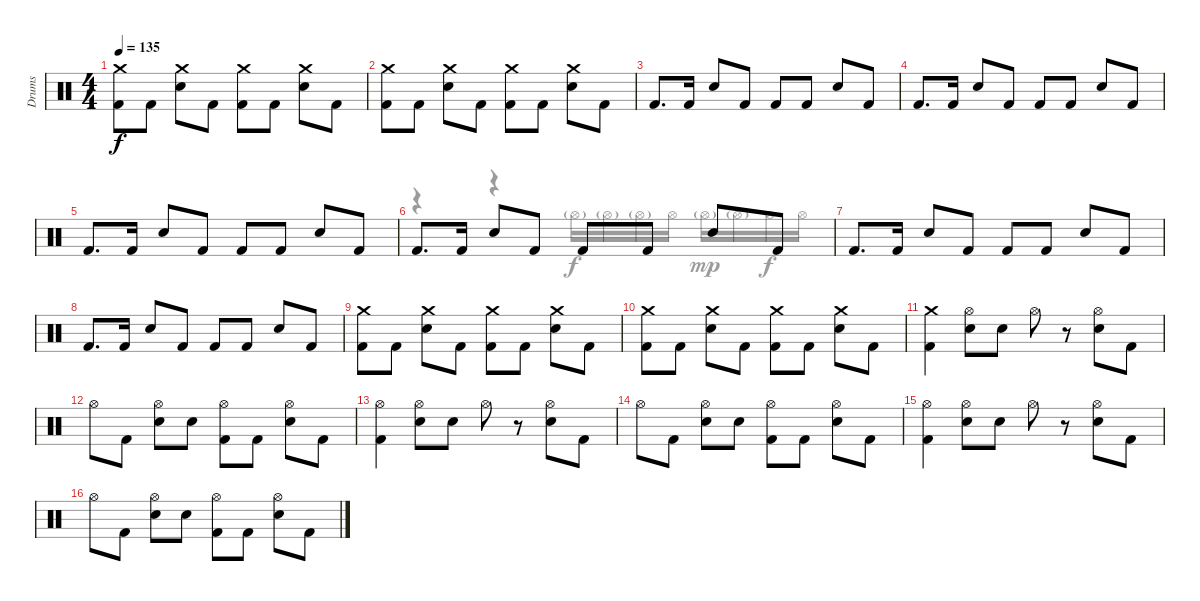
\track ("Drums" "Drums") {instrument percussion}
\staff {score}
\articulation defaults
\voice
\ts (4 4)
\tempo 135
\clef neutral
\ks c
("Crash medium (hit)" "Kick (hit) 2").8{dy f} "Kick (hit) 2".8 ("Crash medium (hit)" "Snare (hit) 2").8 "Kick (hit) 2".8 ("Crash medium (hit)" "Kick (hit) 2").8 "Kick (hit) 2".8 ("Crash medium (hit)" "Snare (hit) 2").8 "Kick (hit) 2".8 |
("Crash medium (hit)" "Kick (hit) 2").8 "Kick (hit) 2".8 ("Crash medium (hit)" "Snare (hit) 2").8 "Kick (hit) 2".8 ("Crash medium (hit)" "Kick (hit) 2").8 "Kick (hit) 2".8 ("Crash medium (hit)" "Snare (hit) 2").8 "Kick (hit) 2".8 |
"Kick (hit) 2".8{d} "Kick (hit) 2".16 "Snare (hit) 2".8 "Kick (hit) 2".8 "Kick (hit) 2".8 "Kick (hit) 2".8 "Snare (hit) 2".8 "Kick (hit) 2".8 |
"Kick (hit) 2".8{d} "Kick (hit) 2".16 "Snare (hit) 2".8 "Kick (hit) 2".8 "Kick (hit) 2".8 "Kick (hit) 2".8 "Snare (hit) 2".8 "Kick (hit) 2".8 |
"Kick (hit) 2".8{d} "Kick (hit) 2".16 "Snare (hit) 2".8 "Kick (hit) 2".8 "Kick (hit) 2".8 "Kick (hit) 2".8 "Snare (hit) 2".8 "Kick (hit) 2".8 |
"Kick (hit) 2".8{d} "Kick (hit) 2".16 "Snare (hit) 2".8 "Kick (hit) 2".8 "Kick (hit) 2".8 "Kick (hit) 2".8 "Snare (hit) 2".8 "Kick (hit) 2".8 |
"Kick (hit) 2".8{d} "Kick (hit) 2".16 "Snare (hit) 2".8 "Kick (hit) 2".8 "Kick (hit) 2".8 "Kick (hit) 2".8 "Snare (hit) 2".8 "Kick (hit) 2".8 |
"Kick (hit) 2".8{d} "Kick (hit) 2".16 "Snare (hit) 2".8 "Kick (hit) 2".8 "Kick (hit) 2".8 "Kick (hit) 2".8 "Snare (hit) 2".8 "Kick (hit) 2".8 |
("Crash medium (hit)" "Kick (hit) 2").8 "Kick (hit) 2".8 ("Crash medium (hit)" "Snare (hit) 2").8 "Kick (hit) 2".8 ("Crash medium (hit)" "Kick (hit) 2").8 "Kick (hit) 2".8 ("Crash medium (hit)" "Snare (hit) 2").8 "Kick (hit) 2".8 |
("Crash medium (hit)" "Kick (hit) 2").8 "Kick (hit) 2".8 ("Crash medium (hit)" "Snare (hit) 2").8 "Kick (hit) 2".8 ("Crash medium (hit)" "Kick (hit) 2").8 "Kick (hit) 2".8 ("Crash medium (hit)" "Snare (hit) 2").8 "Kick (hit) 2".8 |
("Crash medium (hit)" "Kick (hit) 2").4 ("Hi-Hat (open)" "Snare (hit) 2").8 "Snare (hit) 2".8 "Hi-Hat (open)".8 r.8 ("Hi-Hat (open)" "Snare (hit) 2").8 "Kick (hit) 2".8 |
"Hi-Hat (open)".8 "Kick (hit) 2".8 ("Hi-Hat (open)" "Snare (hit) 2").8 "Snare (hit) 2".8 ("Hi-Hat (open)" "Kick (hit) 2").8 "Kick (hit) 2".8 ("Hi-Hat (open)" "Snare (hit) 2").8 "Kick (hit) 2".8 |
("Hi-Hat (open)" "Kick (hit) 2").4 ("Hi-Hat (open)" "Snare (hit) 2").8 "Snare (hit) 2".8 "Hi-Hat (open)".8 r.8 ("Hi-Hat (open)" "Snare (hit) 2").8 "Kick (hit) 2".8 |
"Hi-Hat (open)".8 "Kick (hit) 2".8 ("Hi-Hat (open)" "Snare (hit) 2").8 "Snare (hit) 2".8 ("Hi-Hat (open)" "Kick (hit) 2").8 "Kick (hit) 2".8 ("Hi-Hat (open)" "Snare (hit) 2").8 "Kick (hit) 2".8 |
("Hi-Hat (open)" "Kick (hit) 2").4 ("Hi-Hat (open)" "Snare (hit) 2").8 "Snare (hit) 2".8 "Hi-Hat (open)".8 r.8 ("Hi-Hat (open)" "Snare (hit) 2").8 "Kick (hit) 2".8 |
"Hi-Hat (open)".8 "Kick (hit) 2".8 ("Hi-Hat (open)" "Snare (hit) 2").8 "Snare (hit) 2".8 ("Hi-Hat (open)" "Kick (hit) 2").8 "Kick (hit) 2".8 ("Hi-Hat (open)" "Snare (hit) 2").8 "Kick (hit) 2".8
\voice
\clef neutral
\ottava regular
\simile none
\ks c
|
|
|
|
|
r.4 r.4 "Hi-Hat (open)"{g}.16 "Hi-Hat (open)"{g}.16 "Hi-Hat (open)"{g}.16 "Hi-Hat (open)".16{dy f} "Hi-Hat (open)"{g}.16{dy mp} "Hi-Hat (open)"{g}.16 "Hi-Hat (open)".16{dy f} "Hi-Hat (open)".16 |
|
|
|
|
|
|
|
|
|
